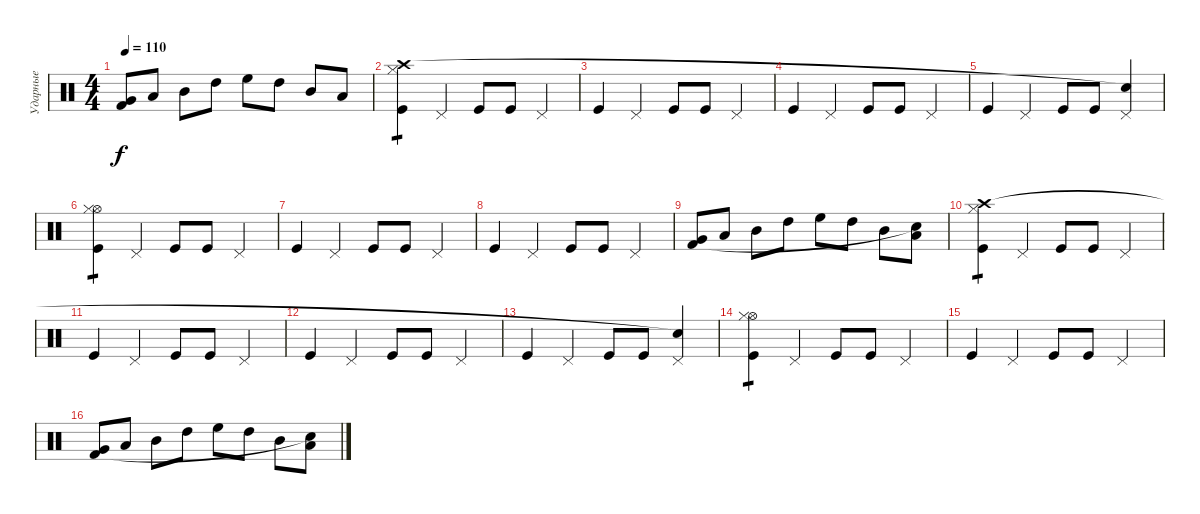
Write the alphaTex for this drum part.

\track ("Ударные" "Ударные") {instrument percussion}
\staff {score}
\articulation defaults
\ts (4 4)
\tempo 110
\clef neutral
\ks c
("Very Low Tom (hit)" "Kick (hit) 2").8{dy f} "Low Tom (hit)".8 "Mid Tom (hit)".8 "High Tom (hit)".8 "High Floor Tom (hit)".8 "High Tom (hit)".8 "Mid Tom (hit)".8 "Low Tom (hit)".8 |
("Kick (hit)" "Crash high (hit)" "Hi-Hat (closed)").4{tp 1} "Pedal Hi-Hat (hit)".4 "Kick (hit)".8 "Kick (hit)".8 "Pedal Hi-Hat (hit)".4 |
"Kick (hit)".4 "Pedal Hi-Hat (hit)".4 "Kick (hit)".8 "Kick (hit)".8 "Pedal Hi-Hat (hit)".4 |
"Kick (hit)".4 "Pedal Hi-Hat (hit)".4 "Kick (hit)".8 "Kick (hit)".8 "Pedal Hi-Hat (hit)".4 |
"Kick (hit)".4 "Pedal Hi-Hat (hit)".4 "Kick (hit)".8 "Kick (hit)".8 ("Pedal Hi-Hat (hit)" "Snare (hit)"{t}).4 |
("Kick (hit)" "Hi-Hat (open)" "Hi-Hat (closed)").4{tp 1} "Pedal Hi-Hat (hit)".4 "Kick (hit)".8 "Kick (hit)".8 "Pedal Hi-Hat (hit)".4 |
"Kick (hit)".4 "Pedal Hi-Hat (hit)".4 "Kick (hit)".8 "Kick (hit)".8 "Pedal Hi-Hat (hit)".4 |
"Kick (hit)".4 "Pedal Hi-Hat (hit)".4 "Kick (hit)".8 "Kick (hit)".8 "Pedal Hi-Hat (hit)".4 |
("Very Low Tom (hit)" "Kick (hit) 2").8 "Low Tom (hit)".8 "Mid Tom (hit)".8 "High Tom (hit)".8 "High Floor Tom (hit)".8 "High Tom (hit)".8 "Mid Tom (hit)".8 ("Low Tom (hit)" "Snare (hit)"{t}).8 |
("Kick (hit)" "Crash high (hit)" "Hi-Hat (closed)").4{tp 1} "Pedal Hi-Hat (hit)".4 "Kick (hit)".8 "Kick (hit)".8 "Pedal Hi-Hat (hit)".4 |
"Kick (hit)".4 "Pedal Hi-Hat (hit)".4 "Kick (hit)".8 "Kick (hit)".8 "Pedal Hi-Hat (hit)".4 |
"Kick (hit)".4 "Pedal Hi-Hat (hit)".4 "Kick (hit)".8 "Kick (hit)".8 "Pedal Hi-Hat (hit)".4 |
"Kick (hit)".4 "Pedal Hi-Hat (hit)".4 "Kick (hit)".8 "Kick (hit)".8 ("Pedal Hi-Hat (hit)" "Snare (hit)"{t}).4 |
("Kick (hit)" "Hi-Hat (open)" "Hi-Hat (closed)").4{tp 1} "Pedal Hi-Hat (hit)".4 "Kick (hit)".8 "Kick (hit)".8 "Pedal Hi-Hat (hit)".4 |
"Kick (hit)".4 "Pedal Hi-Hat (hit)".4 "Kick (hit)".8 "Kick (hit)".8 "Pedal Hi-Hat (hit)".4 |
("Very Low Tom (hit)" "Kick (hit) 2").8 "Low Tom (hit)".8 "Mid Tom (hit)".8 "High Tom (hit)".8 "High Floor Tom (hit)".8 "High Tom (hit)".8 "Mid Tom (hit)".8 ("Low Tom (hit)" "Snare (hit)"{t}).8
